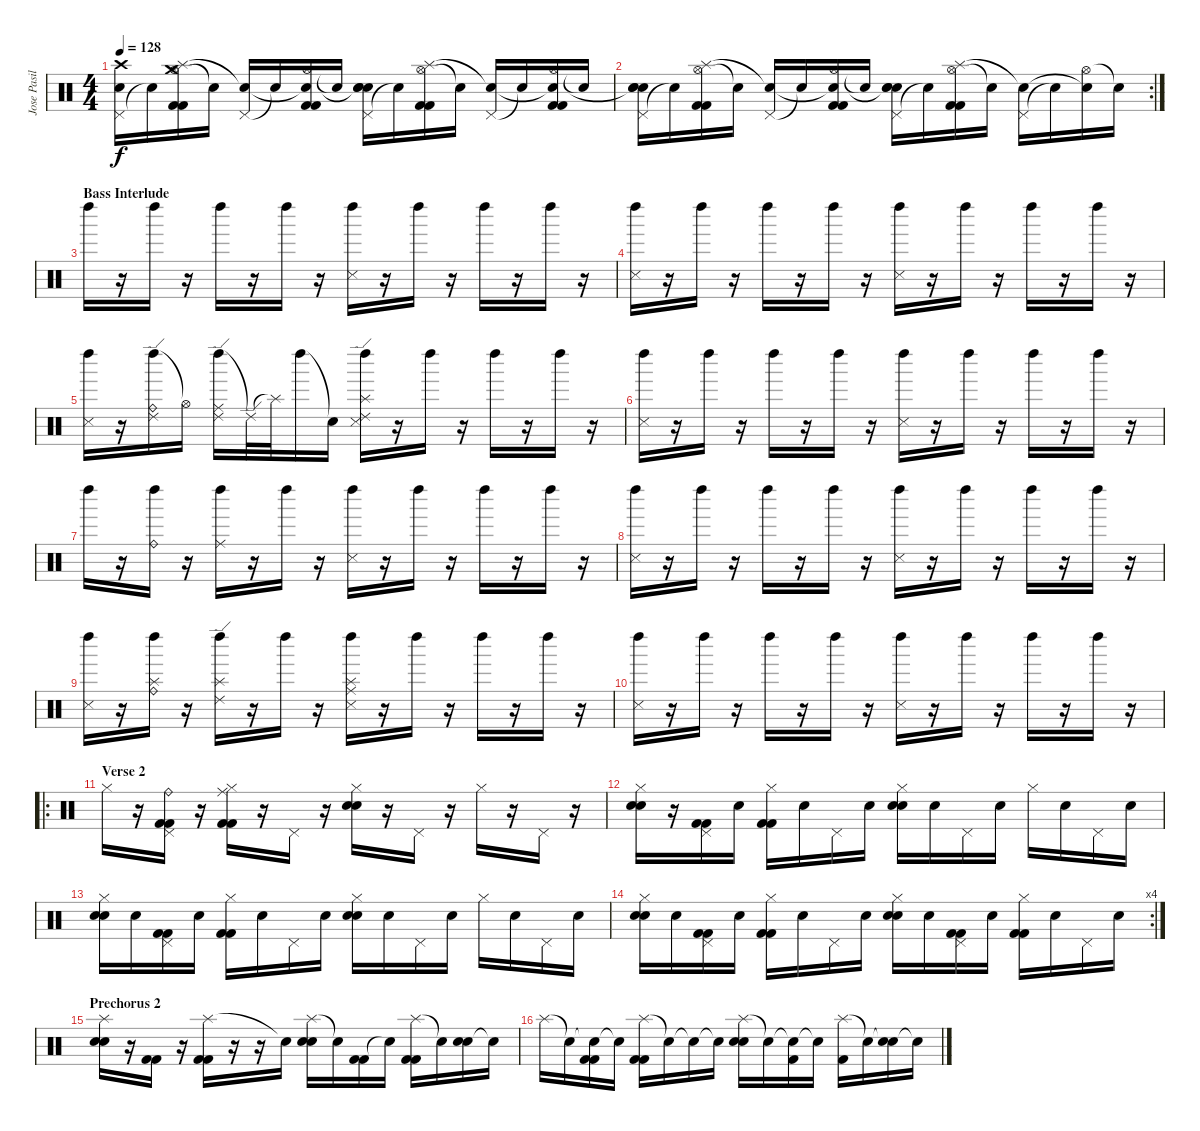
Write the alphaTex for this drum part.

\track ("Jose Pasillas" "Jose Pasil") {instrument percussion}
\staff {score}
\articulation defaults
\ts (4 4)
\tempo 128
\clef neutral
\ks c
("Pedal Hi-Hat (hit)" "Snare (hit)"{t} "Crash high (hit)").16{dy f} "Snare (hit)"{t}.16 ("Hi-Hat (open)" "Splash (hit)" "Kick (hit) 2" "Kick (hit) 2" "Crash medium (hit)").16 "Snare (hit)"{t}.16 ("Pedal Hi-Hat (hit)" "Snare (hit)"{t}).16 "Snare (hit)"{t}.16 ("Hi-Hat (open)" "Snare (hit)"{t} "Kick (hit) 2" "Kick (hit) 2").16 "Snare (hit)"{t}.16 ("Pedal Hi-Hat (hit)" "Snare (hit)"{t} "Electric Snare (hit)" "Electric Snare (hit)").16 "Snare (hit)"{t}.16 ("Hi-Hat (open)" "Splash (hit)" "Kick (hit) 2" "Kick (hit) 2").16 "Snare (hit)"{t}.16 ("Pedal Hi-Hat (hit)" "Snare (hit)"{t}).16 "Snare (hit)"{t}.16 ("Hi-Hat (open)" "Snare (hit)"{t} "Kick (hit) 2" "Kick (hit) 2").16 "Snare (hit)"{t}.16 |
\rc 2
("Pedal Hi-Hat (hit)" "Electric Snare (hit)"{t} "Electric Snare (hit)" "Electric Snare (hit)").16 "Snare (hit)"{t}.16 ("Hi-Hat (open)" "Splash (hit)" "Kick (hit) 2" "Kick (hit) 2").16 "Snare (hit)"{t}.16 ("Pedal Hi-Hat (hit)" "Snare (hit)"{t}).16 "Snare (hit)"{t}.16 ("Hi-Hat (open)" "Snare (hit)"{t} "Kick (hit) 2" "Kick (hit) 2").16 "Snare (hit)"{t}.16 ("Pedal Hi-Hat (hit)" "Snare (hit)"{t} "Electric Snare (hit)" "Electric Snare (hit)").16 "Snare (hit)"{t}.16 ("Hi-Hat (open)" "Splash (hit)" "Kick (hit) 2" "Kick (hit) 2").16 "Snare (hit)"{t}.16 ("Pedal Hi-Hat (hit)" "Snare (hit)"{t}).16 "Snare (hit)"{t}.16 ("Hi-Hat (open)" "Snare (hit)"{t}).16 "Snare (hit)"{t}.16 |
\section ("" "Bass Interlude")
"Left Maraca (hit)".16 r.16 "Left Maraca (hit)".16 r.16 "Left Maraca (hit)".16 r.16 "Left Maraca (hit)".16 r.16 ("Metronome (hit)" "Left Maraca (hit)").16 r.16 "Left Maraca (hit)".16 r.16 "Left Maraca (hit)".16 r.16 "Left Maraca (hit)".16 r.16 |
("Left Maraca (hit)" "Metronome (hit)").16 r.16 "Left Maraca (hit)".16 r.16 "Left Maraca (hit)".16 r.16 "Left Maraca (hit)".16 r.16 ("Metronome (hit)" "Left Maraca (hit)").16 r.16 "Left Maraca (hit)".16 r.16 "Left Maraca (hit)".16 r.16 "Left Maraca (hit)".16 r.16 |
("Left Maraca (hit)" "Metronome (hit)").16 r.16 ("Left Maraca (hit)" "Ride (edge) 2" "Ride (bell)").16 "Hi-Hat (open)"{t}.16 ("Left Maraca (hit)" "Ride (edge) 2" "Ride (middle)").16 "Ride (edge) 2"{t}.32 "Splash (hit)"{t}.32 "Left Maraca (hit)".16 "Snare (hit)"{t}.16 ("Metronome (hit)" "Left Maraca (hit)" "Ride (edge) 2" "Splash (hit)").16 r.16 "Left Maraca (hit)".16 r.16 "Left Maraca (hit)".16 r.16 "Left Maraca (hit)".16 r.16 |
("Left Maraca (hit)" "Metronome (hit)").16 r.16 "Left Maraca (hit)".16 r.16 "Left Maraca (hit)".16 r.16 "Left Maraca (hit)".16 r.16 ("Metronome (hit)" "Left Maraca (hit)").16 r.16 "Left Maraca (hit)".16 r.16 "Left Maraca (hit)".16 r.16 "Left Maraca (hit)".16 r.16 |
"Left Maraca (hit)".16 r.16 ("Left Maraca (hit)" "Ride (bell)").16 r.16 ("Left Maraca (hit)" "Ride (middle)").16 r.16 "Left Maraca (hit)".16 r.16 ("Metronome (hit)" "Left Maraca (hit)").16 r.16 "Left Maraca (hit)".16 r.16 "Left Maraca (hit)".16 r.16 "Left Maraca (hit)".16 r.16 |
("Left Maraca (hit)" "Metronome (hit)").16 r.16 "Left Maraca (hit)".16 r.16 "Left Maraca (hit)".16 r.16 "Left Maraca (hit)".16 r.16 ("Metronome (hit)" "Left Maraca (hit)").16 r.16 "Left Maraca (hit)".16 r.16 "Left Maraca (hit)".16 r.16 "Left Maraca (hit)".16 r.16 |
("Left Maraca (hit)" "Metronome (hit)").16 r.16 ("Left Maraca (hit)" "Ride (bell)" "Splash (hit)").16 r.16 ("Left Maraca (hit)" "Ride (edge) 2" "Splash (hit)").16 r.16 "Left Maraca (hit)".16 r.16 ("Metronome (hit)" "Left Maraca (hit)" "Ride (middle)" "Splash (hit)").16 r.16 "Left Maraca (hit)".16 r.16 "Left Maraca (hit)".16 r.16 "Left Maraca (hit)".16 r.16 |
("Left Maraca (hit)" "Metronome (hit)").16 r.16 "Left Maraca (hit)".16 r.16 "Left Maraca (hit)".16 r.16 "Left Maraca (hit)".16 r.16 ("Metronome (hit)" "Left Maraca (hit)").16 r.16 "Left Maraca (hit)".16 r.16 "Left Maraca (hit)".16 r.16 "Left Maraca (hit)".16 r.16 |
\ro
\section ("" "Verse 2")
"Hi-Hat (closed)".16 r.16 ("Pedal Hi-Hat (hit)" "Kick (hit) 2" "Kick (hit) 2" "Ride (bell)").16 r.16 ("Hi-Hat (closed)" "Kick (hit) 2" "Kick (hit) 2" "Ride (middle)").16 r.16 "Pedal Hi-Hat (hit)".16 r.16 ("Hi-Hat (closed)" "Electric Snare (hit)" "Electric Snare (hit)").16 r.16 "Pedal Hi-Hat (hit)".16 r.16 "Hi-Hat (closed)".16 r.16 "Pedal Hi-Hat (hit)".16 r.16 |
("Hi-Hat (closed)" "Electric Snare (hit)" "Electric Snare (hit)").16 r.16 ("Pedal Hi-Hat (hit)" "Kick (hit) 2" "Kick (hit) 2").16 "Snare (hit)".16 ("Hi-Hat (closed)" "Kick (hit) 2" "Kick (hit) 2").16 "Snare (hit)".16 "Pedal Hi-Hat (hit)".16 "Snare (hit)".16 ("Hi-Hat (closed)" "Electric Snare (hit)" "Electric Snare (hit)").16 "Snare (hit)".16 "Pedal Hi-Hat (hit)".16 "Snare (hit)".16 "Hi-Hat (closed)".16 "Snare (hit)".16 "Pedal Hi-Hat (hit)".16 "Snare (hit)".16 |
("Hi-Hat (closed)" "Electric Snare (hit)" "Electric Snare (hit)").16 "Snare (hit)".16 ("Pedal Hi-Hat (hit)" "Kick (hit) 2" "Kick (hit) 2").16 "Snare (hit)".16 ("Hi-Hat (closed)" "Kick (hit) 2" "Kick (hit) 2").16 "Snare (hit)".16 "Pedal Hi-Hat (hit)".16 "Snare (hit)".16 ("Hi-Hat (closed)" "Electric Snare (hit)" "Electric Snare (hit)").16 "Snare (hit)".16 "Pedal Hi-Hat (hit)".16 "Snare (hit)".16 "Hi-Hat (closed)".16 "Snare (hit)".16 "Pedal Hi-Hat (hit)".16 "Snare (hit)".16 |
\rc 4
("Hi-Hat (closed)" "Electric Snare (hit)" "Electric Snare (hit)").16 "Snare (hit)".16 ("Pedal Hi-Hat (hit)" "Kick (hit) 2" "Kick (hit) 2").16 "Snare (hit)".16 ("Hi-Hat (closed)" "Kick (hit) 2" "Kick (hit) 2").16 "Snare (hit)".16 "Pedal Hi-Hat (hit)".16 "Snare (hit)".16 ("Hi-Hat (closed)" "Electric Snare (hit)" "Electric Snare (hit)").16 "Snare (hit)".16 ("Pedal Hi-Hat (hit)" "Kick (hit) 2" "Kick (hit) 2").16 "Snare (hit)".16 ("Hi-Hat (closed)" "Kick (hit) 2" "Kick (hit) 2").16 "Snare (hit)".16 "Pedal Hi-Hat (hit)".16 "Snare (hit)".16 |
\section ("" "Prechorus 2")
("Splash (hit)" "Electric Snare (hit)" "Electric Snare (hit)").16 r.16 ("Kick (hit) 2" "Kick (hit) 2").16 r.16 ("Splash (hit)" "Kick (hit) 2" "Kick (hit) 2").16 r.16 r.16 "Snare (hit)"{t}.16 ("Splash (hit)" "Electric Snare (hit)" "Electric Snare (hit)").16 "Snare (hit)"{t}.16 ("Kick (hit) 2" "Kick (hit) 2").16 "Snare (hit)"{t}.16 ("Splash (hit)" "Kick (hit) 2" "Kick (hit) 2").16 "Snare (hit)"{t}.16 ("Electric Snare (hit)" "Electric Snare (hit)").16 "Snare (hit)"{t}.16 |
"Splash (hit)".16 "Snare (hit)"{t}.16 ("Snare (hit)"{t} "Kick (hit) 2" "Kick (hit) 2").16 "Snare (hit)"{t}.16 ("Splash (hit)" "Kick (hit) 2" "Kick (hit) 2").16 "Snare (hit)"{t}.16 "Snare (hit)"{t}.16 "Snare (hit)"{t}.16 ("Splash (hit)" "Electric Snare (hit)" "Electric Snare (hit)").16 "Snare (hit)"{t}.16 ("Snare (hit)"{t} "Kick (hit) 2").16 "Snare (hit)"{t}.16 ("Splash (hit)" "Kick (hit) 2").16 "Snare (hit)"{t}.16 ("Snare (hit)"{t} "Electric Snare (hit)").16 "Snare (hit)"{t}.16
